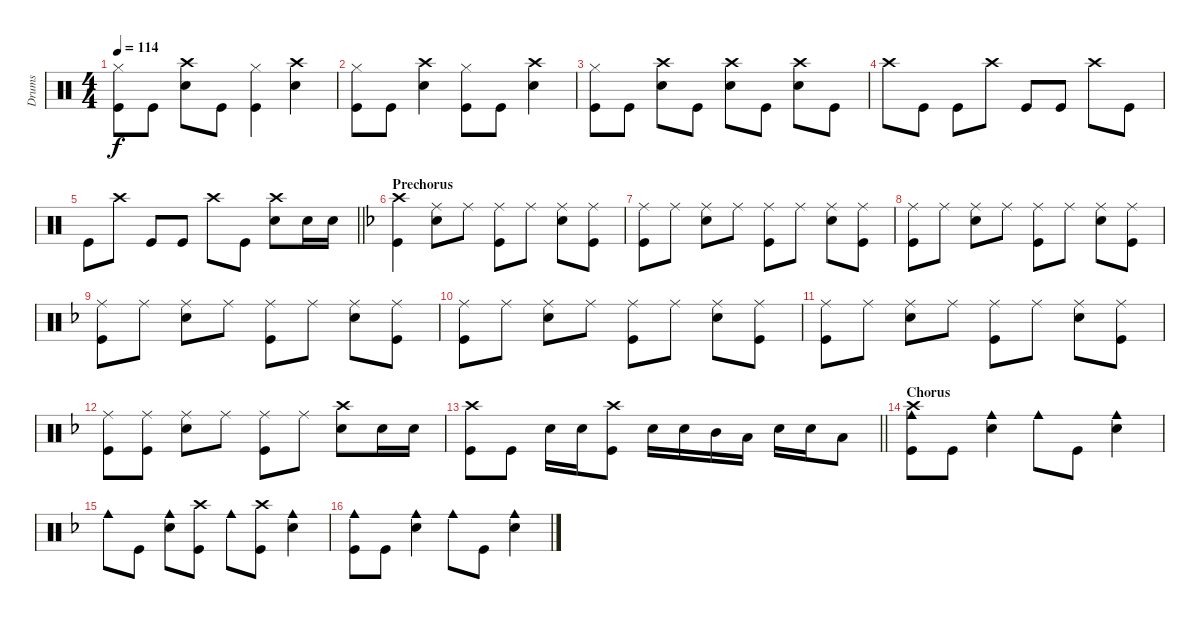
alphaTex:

\track ("Drums" "Drums") {instrument percussion}
\staff {score}
\articulation defaults
\ts (4 4)
\tempo 114
\clef neutral
\ks aminor
("Hi-Hat (closed)" "Kick (hit)").8{dy f} "Kick (hit)".8 ("Crash high (hit)" "Snare (hit) 2").8 "Kick (hit)".8 ("Hi-Hat (closed)" "Kick (hit)").4 ("Crash high (hit)" "Snare (hit) 2").4 |
("Hi-Hat (closed)" "Kick (hit)").8 "Kick (hit)".8 ("Crash high (hit)" "Snare (hit) 2").4 ("Hi-Hat (closed)" "Kick (hit)").8 "Kick (hit)".8 ("Crash high (hit)" "Snare (hit) 2").4 |
("Hi-Hat (closed)" "Kick (hit)").8 "Kick (hit)".8 ("Crash high (hit)" "Snare (hit) 2").8 "Kick (hit)".8 ("Crash high (hit)" "Snare (hit) 2").8 "Kick (hit)".8 ("Crash high (hit)" "Snare (hit) 2").8 "Kick (hit)".8 |
"Crash high (hit)".8 "Kick (hit)".8 "Kick (hit)".8 "Crash high (hit)".8 "Kick (hit)".8 "Kick (hit)".8 "Crash high (hit)".8 "Kick (hit)".8 |
\barLineRight lightlight "Kick (hit)".8 "Crash high (hit)".8 "Kick (hit)".8 "Kick (hit)".8 "Crash high (hit)".8 "Kick (hit)".8
("Crash high (hit)" "Snare (hit) 2").8 "Snare (hit) 2".16 "Snare (hit) 2".16 |
\section ("" "Prechorus")
\ks dminor
("Crash high (hit)" "Kick (hit)").4 ("Ride (middle)" "Snare (hit) 2").8 "Ride (middle)".8 ("Ride (middle)" "Kick (hit)").8 "Ride (middle)".8 ("Ride (middle)" "Snare (hit) 2").8 ("Ride (middle)" "Kick (hit)").8 |
("Ride (middle)" "Kick (hit)").8 "Ride (middle)".8 ("Ride (middle)" "Snare (hit) 2").8 "Ride (middle)".8 ("Ride (middle)" "Kick (hit)").8 "Ride (middle)".8 ("Ride (middle)" "Snare (hit) 2").8 ("Ride (middle)" "Kick (hit)").8 |
("Ride (middle)" "Kick (hit)").8 "Ride (middle)".8 ("Ride (middle)" "Snare (hit) 2").8 "Ride (middle)".8 ("Ride (middle)" "Kick (hit)").8 "Ride (middle)".8 ("Ride (middle)" "Snare (hit) 2").8 ("Ride (middle)" "Kick (hit)").8 |
("Ride (middle)" "Kick (hit)").8 "Ride (middle)".8 ("Ride (middle)" "Snare (hit) 2").8 "Ride (middle)".8 ("Ride (middle)" "Kick (hit)").8 "Ride (middle)".8 ("Ride (middle)" "Snare (hit) 2").8 ("Ride (middle)" "Kick (hit)").8 |
("Ride (middle)" "Kick (hit)").8 "Ride (middle)".8 ("Ride (middle)" "Snare (hit) 2").8 "Ride (middle)".8 ("Ride (middle)" "Kick (hit)").8 "Ride (middle)".8 ("Ride (middle)" "Snare (hit) 2").8 ("Ride (middle)" "Kick (hit)").8 |
("Ride (middle)" "Kick (hit)").8 "Ride (middle)".8 ("Ride (middle)" "Snare (hit) 2").8 "Ride (middle)".8 ("Ride (middle)" "Kick (hit)").8 "Ride (middle)".8 ("Ride (middle)" "Snare (hit) 2").8 ("Ride (middle)" "Kick (hit)").8 |
("Ride (middle)" "Kick (hit)").8 ("Ride (middle)" "Kick (hit)").8 ("Ride (middle)" "Snare (hit) 2").8 "Ride (middle)".8 ("Ride (middle)" "Kick (hit)").8 "Ride (middle)".8 ("Crash high (hit)" "Snare (hit) 2").8 "Snare (hit) 2".16 "Snare (hit) 2".16 |
\barLineRight lightlight
("Crash high (hit)" "Kick (hit)").8 "Kick (hit)".8 "Snare (hit) 2".16 "Snare (hit) 2".16 ("Crash high (hit)" "Kick (hit)").8 "Snare (hit) 2".16 "Snare (hit) 2".16 "Mid Tom (hit)".16 "Low Tom (hit)".16 "Snare (hit) 2".16 "Snare (hit) 2".16 "Low Tom (hit)".8 |
\section ("" "Chorus")
("Cowbell medium (hit)" "Crash high (hit)" "Kick (hit)").8 "Kick (hit)".8 ("Cowbell medium (hit)" "Snare (hit) 2").4 "Cowbell medium (hit)".8 "Kick (hit)".8 ("Cowbell medium (hit)" "Snare (hit) 2").4 |
"Cowbell medium (hit)".8 "Kick (hit)".8 ("Cowbell medium (hit)" "Snare (hit) 2").8 ("Crash high (hit)" "Kick (hit)").8 "Cowbell medium (hit)".8 ("Crash high (hit)" "Kick (hit)").8 ("Cowbell medium (hit)" "Snare (hit) 2").4 |
("Cowbell medium (hit)" "Kick (hit)").8 "Kick (hit)".8 ("Cowbell medium (hit)" "Snare (hit) 2").4 "Cowbell medium (hit)".8 "Kick (hit)".8 ("Cowbell medium (hit)" "Snare (hit) 2").4
